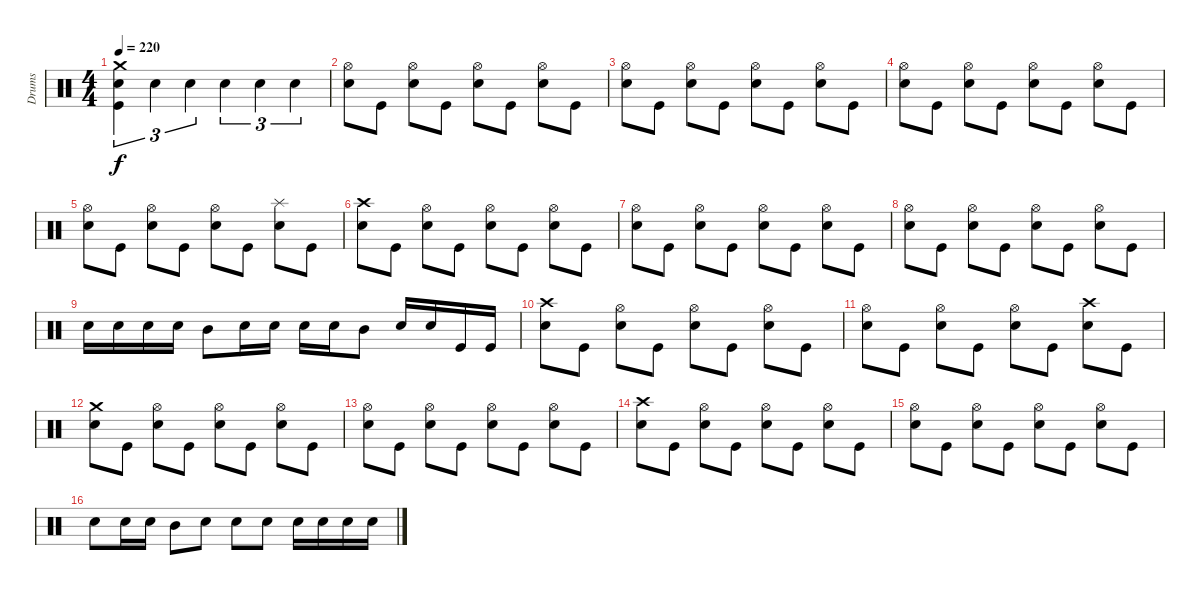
\track ("Drums" "Drums") {instrument percussion}
\staff {score}
\articulation defaults
\ts (4 4)
\tempo 220
\clef neutral
\ks c
("Crash medium (hit)" "Snare (hit) 2" "Kick (hit)").4{tu (3 2) dy f} "Snare (hit) 2".4{tu (3 2)} "Snare (hit) 2".4{tu (3 2)} "Snare (hit) 2".4{tu (3 2)} "Snare (hit) 2".4{tu (3 2)} "Snare (hit) 2".4{tu (3 2)} |
("Hi-Hat (open)" "Snare (hit) 2").8 "Kick (hit)".8 ("Hi-Hat (open)" "Snare (hit) 2").8 "Kick (hit)".8 ("Hi-Hat (open)" "Snare (hit) 2").8 "Kick (hit)".8 ("Hi-Hat (open)" "Snare (hit) 2").8 "Kick (hit)".8 |
("Hi-Hat (open)" "Snare (hit) 2").8 "Kick (hit)".8 ("Hi-Hat (open)" "Snare (hit) 2").8 "Kick (hit)".8 ("Hi-Hat (open)" "Snare (hit) 2").8 "Kick (hit)".8 ("Hi-Hat (open)" "Snare (hit) 2").8 "Kick (hit)".8 |
("Hi-Hat (open)" "Snare (hit) 2").8 "Kick (hit)".8 ("Hi-Hat (open)" "Snare (hit) 2").8 "Kick (hit)".8 ("Hi-Hat (open)" "Snare (hit) 2").8 "Kick (hit)".8 ("Hi-Hat (open)" "Snare (hit) 2").8 "Kick (hit)".8 |
("Hi-Hat (open)" "Snare (hit) 2").8 "Kick (hit)".8 ("Hi-Hat (open)" "Snare (hit) 2").8 "Kick (hit)".8 ("Hi-Hat (open)" "Snare (hit) 2").8 "Kick (hit)".8 ("Splash (hit)" "Snare (hit) 2").8 "Kick (hit)".8 |
("Crash high (hit)" "Snare (hit) 2").8 "Kick (hit)".8 ("Hi-Hat (open)" "Snare (hit) 2").8 "Kick (hit)".8 ("Hi-Hat (open)" "Snare (hit) 2").8 "Kick (hit)".8 ("Hi-Hat (open)" "Snare (hit) 2").8 "Kick (hit)".8 |
("Hi-Hat (open)" "Snare (hit) 2").8 "Kick (hit)".8 ("Hi-Hat (open)" "Snare (hit) 2").8 "Kick (hit)".8 ("Hi-Hat (open)" "Snare (hit) 2").8 "Kick (hit)".8 ("Hi-Hat (open)" "Snare (hit) 2").8 "Kick (hit)".8 |
("Hi-Hat (open)" "Snare (hit) 2").8 "Kick (hit)".8 ("Hi-Hat (open)" "Snare (hit) 2").8 "Kick (hit)".8 ("Hi-Hat (open)" "Snare (hit) 2").8 "Kick (hit)".8 ("Hi-Hat (open)" "Snare (hit) 2").8 "Kick (hit)".8 |
"Snare (hit) 2".16 "Snare (hit) 2".16 "Snare (hit) 2".16 "Snare (hit) 2".16 "Mid Tom (hit)".8 "Snare (hit) 2".16 "Snare (hit) 2".16 "Snare (hit) 2".16 "Snare (hit) 2".16 "Mid Tom (hit)".8 "Snare (hit) 2".16 "Snare (hit) 2".16 "Kick (hit)".16 "Kick (hit)".16 |
("Crash high (hit)" "Snare (hit) 2").8 "Kick (hit)".8 ("Hi-Hat (open)" "Snare (hit) 2").8 "Kick (hit)".8 ("Hi-Hat (open)" "Snare (hit) 2").8 "Kick (hit)".8 ("Hi-Hat (open)" "Snare (hit) 2").8 "Kick (hit)".8 |
("Hi-Hat (open)" "Snare (hit) 2").8 "Kick (hit)".8 ("Hi-Hat (open)" "Snare (hit) 2").8 "Kick (hit)".8 ("Hi-Hat (open)" "Snare (hit) 2").8 "Kick (hit)".8 ("Crash high (hit)" "Snare (hit) 2").8 "Kick (hit)".8 |
("Crash medium (hit)" "Snare (hit) 2").8 "Kick (hit)".8 ("Hi-Hat (open)" "Snare (hit) 2").8 "Kick (hit)".8 ("Hi-Hat (open)" "Snare (hit) 2").8 "Kick (hit)".8 ("Hi-Hat (open)" "Snare (hit) 2").8 "Kick (hit)".8 |
("Hi-Hat (open)" "Snare (hit) 2").8 "Kick (hit)".8 ("Hi-Hat (open)" "Snare (hit) 2").8 "Kick (hit)".8 ("Hi-Hat (open)" "Snare (hit) 2").8 "Kick (hit)".8 ("Hi-Hat (open)" "Snare (hit) 2").8 "Kick (hit)".8 |
("Crash high (hit)" "Snare (hit) 2").8 "Kick (hit)".8 ("Hi-Hat (open)" "Snare (hit) 2").8 "Kick (hit)".8 ("Hi-Hat (open)" "Snare (hit) 2").8 "Kick (hit)".8 ("Hi-Hat (open)" "Snare (hit) 2").8 "Kick (hit)".8 |
("Hi-Hat (open)" "Snare (hit) 2").8 "Kick (hit)".8 ("Hi-Hat (open)" "Snare (hit) 2").8 "Kick (hit)".8 ("Hi-Hat (open)" "Snare (hit) 2").8 "Kick (hit)".8 ("Hi-Hat (open)" "Snare (hit) 2").8 "Kick (hit)".8 |
"Snare (hit) 2".8 "Snare (hit) 2".16 "Snare (hit) 2".16 "Mid Tom (hit)".8 "Snare (hit) 2".8 "Snare (hit) 2".8 "Snare (hit) 2".8 "Snare (hit) 2".16 "Snare (hit) 2".16 "Snare (hit) 2".16 "Snare (hit) 2".16
